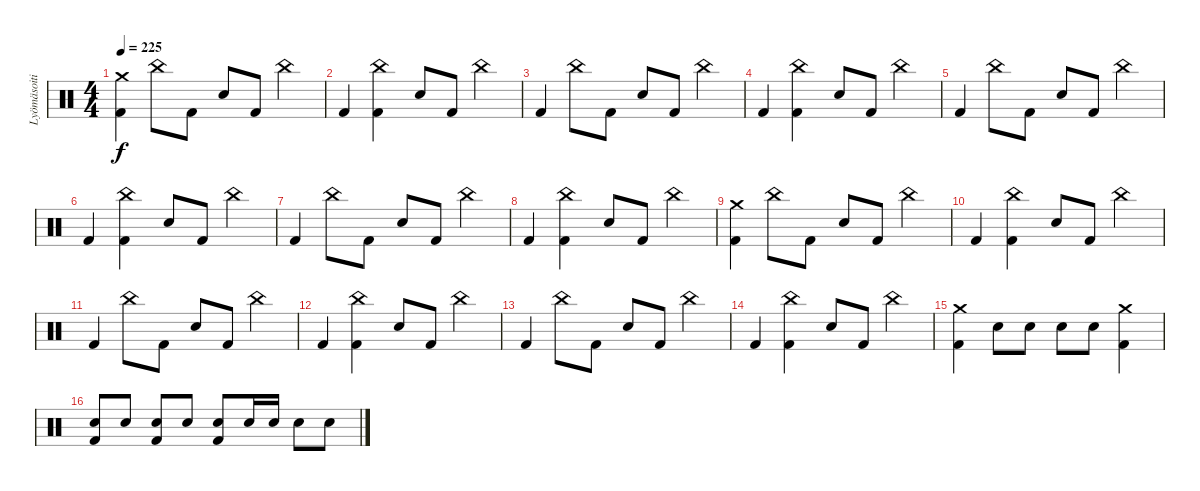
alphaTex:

\track ("Lyömäsoitin" "Lyömäsoiti") {instrument percussion}
\staff {score}
\articulation defaults
\ts (4 4)
\tempo 225
\clef neutral
\ks c
("Crash medium (hit)" "Kick (hit) 2").4{dy f} "China (hit)".8 "Kick (hit) 2".8 "Snare (hit) 2".8 "Kick (hit) 2".8 "China (hit)".4 |
"Kick (hit) 2".4 ("China (hit)" "Kick (hit) 2").4 "Snare (hit) 2".8 "Kick (hit) 2".8 "China (hit)".4 |
"Kick (hit) 2".4 "China (hit)".8 "Kick (hit) 2".8 "Snare (hit) 2".8 "Kick (hit) 2".8 "China (hit)".4 |
"Kick (hit) 2".4 ("China (hit)" "Kick (hit) 2").4 "Snare (hit) 2".8 "Kick (hit) 2".8 "China (hit)".4 |
"Kick (hit) 2".4 "China (hit)".8 "Kick (hit) 2".8 "Snare (hit) 2".8 "Kick (hit) 2".8 "China (hit)".4 |
"Kick (hit) 2".4 ("China (hit)" "Kick (hit) 2").4 "Snare (hit) 2".8 "Kick (hit) 2".8 "China (hit)".4 |
"Kick (hit) 2".4 "China (hit)".8 "Kick (hit) 2".8 "Snare (hit) 2".8 "Kick (hit) 2".8 "China (hit)".4 |
"Kick (hit) 2".4 ("China (hit)" "Kick (hit) 2").4 "Snare (hit) 2".8 "Kick (hit) 2".8 "China (hit)".4 |
("Crash medium (hit)" "Kick (hit) 2").4 "China (hit)".8 "Kick (hit) 2".8 "Snare (hit) 2".8 "Kick (hit) 2".8 "China (hit)".4 |
"Kick (hit) 2".4 ("China (hit)" "Kick (hit) 2").4 "Snare (hit) 2".8 "Kick (hit) 2".8 "China (hit)".4 |
"Kick (hit) 2".4 "China (hit)".8 "Kick (hit) 2".8 "Snare (hit) 2".8 "Kick (hit) 2".8 "China (hit)".4 |
"Kick (hit) 2".4 ("China (hit)" "Kick (hit) 2").4 "Snare (hit) 2".8 "Kick (hit) 2".8 "China (hit)".4 |
"Kick (hit) 2".4 "China (hit)".8 "Kick (hit) 2".8 "Snare (hit) 2".8 "Kick (hit) 2".8 "China (hit)".4 |
"Kick (hit) 2".4 ("China (hit)" "Kick (hit) 2").4 "Snare (hit) 2".8 "Kick (hit) 2".8 "China (hit)".4 |
("Crash medium (hit)" "Kick (hit) 2").4 "Snare (hit) 2".8 "Snare (hit) 2".8 "Snare (hit) 2".8 "Snare (hit) 2".8 ("Crash medium (hit)" "Kick (hit) 2").4 |
("Snare (hit) 2" "Kick (hit) 2").8 "Snare (hit) 2".8 ("Snare (hit) 2" "Kick (hit) 2").8 "Snare (hit) 2".8 ("Snare (hit) 2" "Kick (hit) 2").8 "Snare (hit) 2".16 "Snare (hit) 2".16 "Snare (hit) 2".8 "Snare (hit) 2".8
